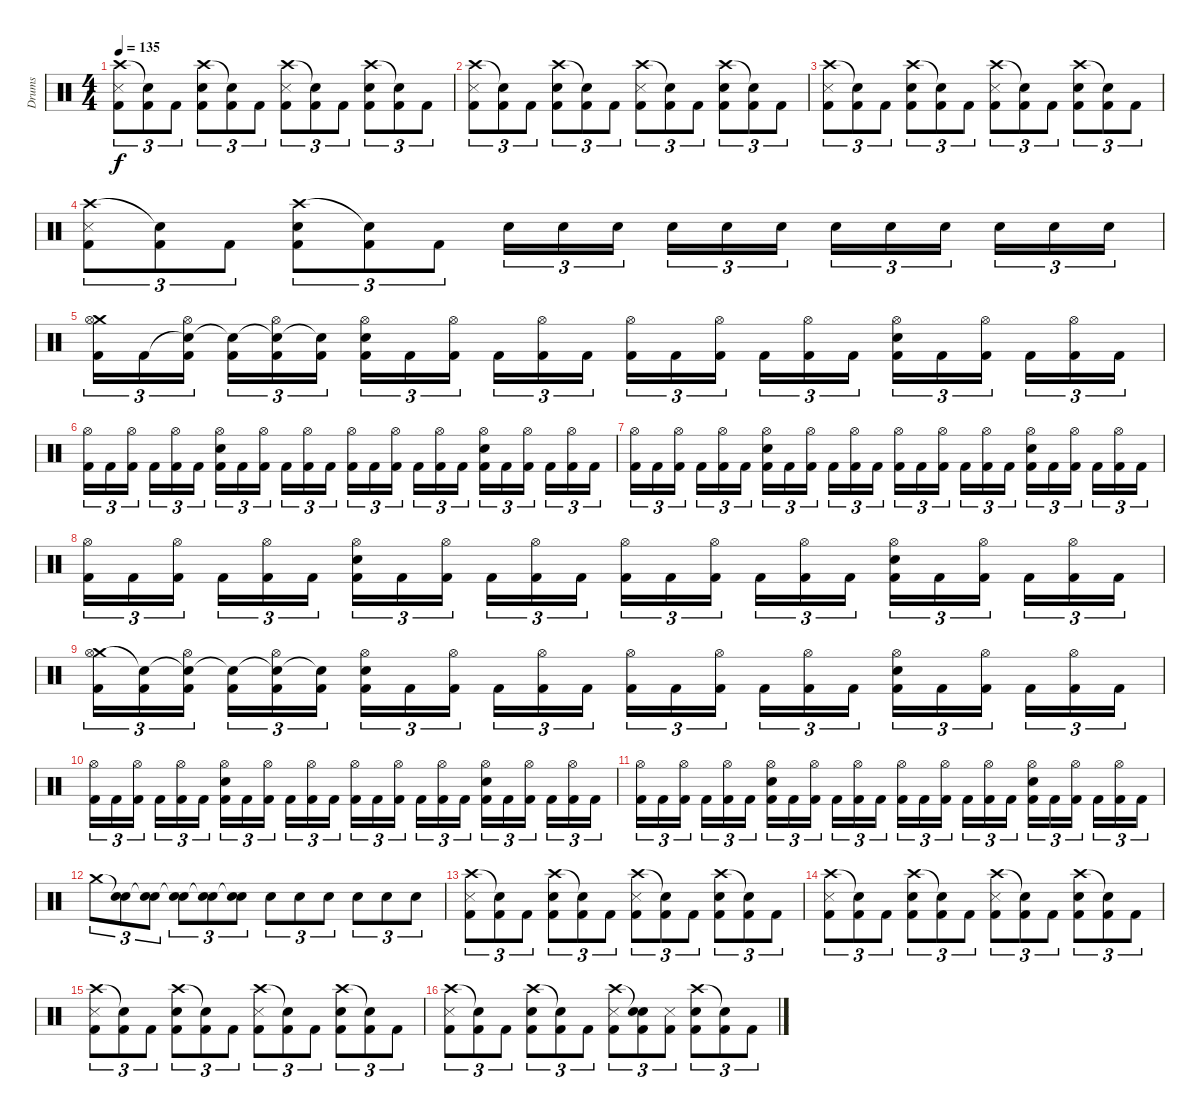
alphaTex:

\track ("Drums" "Drums") {instrument percussion}
\staff {score}
\articulation defaults
\ts (4 4)
\tempo 135
\clef neutral
\ks c
("Crash high (hit)" "Snare (side stick) 3" "Kick (hit) 2").8{tu (3 2) dy f} ("Snare (hit)"{t} "Kick (hit) 2").8{tu (3 2)} "Kick (hit) 2".8{tu (3 2)} ("Crash high (hit)" "Electric Snare (hit)" "Kick (hit) 2").8{tu (3 2)} ("Snare (hit)"{t} "Kick (hit) 2").8{tu (3 2)} "Kick (hit) 2".8{tu (3 2)} ("Crash high (hit)" "Snare (side stick) 3" "Kick (hit) 2").8{tu (3 2)} ("Snare (hit)"{t} "Kick (hit) 2").8{tu (3 2)} "Kick (hit) 2".8{tu (3 2)} ("Crash high (hit)" "Electric Snare (hit)" "Kick (hit) 2").8{tu (3 2)} ("Snare (hit)"{t} "Kick (hit) 2").8{tu (3 2)} "Kick (hit) 2".8{tu (3 2)} |
("Crash high (hit)" "Snare (side stick) 3" "Kick (hit) 2").8{tu (3 2)} ("Snare (hit)"{t} "Kick (hit) 2").8{tu (3 2)} "Kick (hit) 2".8{tu (3 2)} ("Crash high (hit)" "Electric Snare (hit)" "Kick (hit) 2").8{tu (3 2)} ("Snare (hit)"{t} "Kick (hit) 2").8{tu (3 2)} "Kick (hit) 2".8{tu (3 2)} ("Crash high (hit)" "Snare (side stick) 3" "Kick (hit) 2").8{tu (3 2)} ("Snare (hit)"{t} "Kick (hit) 2").8{tu (3 2)} "Kick (hit) 2".8{tu (3 2)} ("Crash high (hit)" "Electric Snare (hit)" "Kick (hit) 2").8{tu (3 2)} ("Snare (hit)"{t} "Kick (hit) 2").8{tu (3 2)} "Kick (hit) 2".8{tu (3 2)} |
("Crash high (hit)" "Snare (side stick) 3" "Kick (hit) 2").8{tu (3 2)} ("Snare (hit)"{t} "Kick (hit) 2").8{tu (3 2)} "Kick (hit) 2".8{tu (3 2)} ("Crash high (hit)" "Electric Snare (hit)" "Kick (hit) 2").8{tu (3 2)} ("Snare (hit)"{t} "Kick (hit) 2").8{tu (3 2)} "Kick (hit) 2".8{tu (3 2)} ("Crash high (hit)" "Snare (side stick) 3" "Kick (hit) 2").8{tu (3 2)} ("Snare (hit)"{t} "Kick (hit) 2").8{tu (3 2)} "Kick (hit) 2".8{tu (3 2)} ("Crash high (hit)" "Electric Snare (hit)" "Kick (hit) 2").8{tu (3 2)} ("Snare (hit)"{t} "Kick (hit) 2").8{tu (3 2)} "Kick (hit) 2".8{tu (3 2)} |
("Crash high (hit)" "Snare (side stick) 3" "Kick (hit) 2").8{tu (3 2)} ("Snare (hit)"{t} "Kick (hit) 2").8{tu (3 2)} "Kick (hit) 2".8{tu (3 2)} ("Crash high (hit)" "Electric Snare (hit)" "Kick (hit) 2").8{tu (3 2)} ("Snare (hit)"{t} "Kick (hit) 2").8{tu (3 2)} "Kick (hit) 2".8{tu (3 2)} "Electric Snare (hit)".16{tu (3 2)} "Electric Snare (hit)".16{tu (3 2)} "Electric Snare (hit)".16{tu (3 2)} "Electric Snare (hit)".16{tu (3 2)} "Electric Snare (hit)".16{tu (3 2)} "Electric Snare (hit)".16{tu (3 2)} "Electric Snare (hit)".16{tu (3 2)} "Electric Snare (hit)".16{tu (3 2)} "Electric Snare (hit)".16{tu (3 2)} "Electric Snare (hit)".16{tu (3 2)} "Electric Snare (hit)".16{tu (3 2)} "Electric Snare (hit)".16{tu (3 2)} |
("Crash medium (hit)" "Hi-Hat (open)" "Kick (hit) 2").16{tu (3 2)} "Kick (hit) 2".16{tu (3 2)} ("Snare (hit)"{t} "Hi-Hat (open)" "Kick (hit) 2").16{tu (3 2)} ("Snare (hit)"{t} "Kick (hit) 2").16{tu (3 2)} ("Snare (hit)"{t} "Hi-Hat (open)" "Kick (hit) 2").16{tu (3 2)} ("Snare (hit)"{t} "Kick (hit) 2").16{tu (3 2)} ("Hi-Hat (open)" "Electric Snare (hit)" "Kick (hit) 2").16{tu (3 2)} "Kick (hit) 2".16{tu (3 2)} ("Hi-Hat (open)" "Kick (hit) 2").16{tu (3 2)} "Kick (hit) 2".16{tu (3 2)} ("Hi-Hat (open)" "Kick (hit) 2").16{tu (3 2)} "Kick (hit) 2".16{tu (3 2)} ("Hi-Hat (open)" "Kick (hit) 2").16{tu (3 2)} "Kick (hit) 2".16{tu (3 2)} ("Hi-Hat (open)" "Kick (hit) 2").16{tu (3 2)} "Kick (hit) 2".16{tu (3 2)} ("Hi-Hat (open)" "Kick (hit) 2").16{tu (3 2)} "Kick (hit) 2".16{tu (3 2)} ("Hi-Hat (open)" "Electric Snare (hit)" "Kick (hit) 2").16{tu (3 2)} "Kick (hit) 2".16{tu (3 2)} ("Hi-Hat (open)" "Kick (hit) 2").16{tu (3 2)} "Kick (hit) 2".16{tu (3 2)} ("Hi-Hat (open)" "Kick (hit) 2").16{tu (3 2)} "Kick (hit) 2".16{tu (3 2)} |
("Hi-Hat (open)" "Kick (hit) 2").16{tu (3 2)} "Kick (hit) 2".16{tu (3 2)} ("Hi-Hat (open)" "Kick (hit) 2").16{tu (3 2)} "Kick (hit) 2".16{tu (3 2)} ("Hi-Hat (open)" "Kick (hit) 2").16{tu (3 2)} "Kick (hit) 2".16{tu (3 2)} ("Hi-Hat (open)" "Electric Snare (hit)" "Kick (hit) 2").16{tu (3 2)} "Kick (hit) 2".16{tu (3 2)} ("Hi-Hat (open)" "Kick (hit) 2").16{tu (3 2)} "Kick (hit) 2".16{tu (3 2)} ("Hi-Hat (open)" "Kick (hit) 2").16{tu (3 2)} "Kick (hit) 2".16{tu (3 2)} ("Hi-Hat (open)" "Kick (hit) 2").16{tu (3 2)} "Kick (hit) 2".16{tu (3 2)} ("Hi-Hat (open)" "Kick (hit) 2").16{tu (3 2)} "Kick (hit) 2".16{tu (3 2)} ("Hi-Hat (open)" "Kick (hit) 2").16{tu (3 2)} "Kick (hit) 2".16{tu (3 2)} ("Hi-Hat (open)" "Electric Snare (hit)" "Kick (hit) 2").16{tu (3 2)} "Kick (hit) 2".16{tu (3 2)} ("Hi-Hat (open)" "Kick (hit) 2").16{tu (3 2)} "Kick (hit) 2".16{tu (3 2)} ("Hi-Hat (open)" "Kick (hit) 2").16{tu (3 2)} "Kick (hit) 2".16{tu (3 2)} |
("Hi-Hat (open)" "Kick (hit) 2").16{tu (3 2)} "Kick (hit) 2".16{tu (3 2)} ("Hi-Hat (open)" "Kick (hit) 2").16{tu (3 2)} "Kick (hit) 2".16{tu (3 2)} ("Hi-Hat (open)" "Kick (hit) 2").16{tu (3 2)} "Kick (hit) 2".16{tu (3 2)} ("Hi-Hat (open)" "Electric Snare (hit)" "Kick (hit) 2").16{tu (3 2)} "Kick (hit) 2".16{tu (3 2)} ("Hi-Hat (open)" "Kick (hit) 2").16{tu (3 2)} "Kick (hit) 2".16{tu (3 2)} ("Hi-Hat (open)" "Kick (hit) 2").16{tu (3 2)} "Kick (hit) 2".16{tu (3 2)} ("Hi-Hat (open)" "Kick (hit) 2").16{tu (3 2)} "Kick (hit) 2".16{tu (3 2)} ("Hi-Hat (open)" "Kick (hit) 2").16{tu (3 2)} "Kick (hit) 2".16{tu (3 2)} ("Hi-Hat (open)" "Kick (hit) 2").16{tu (3 2)} "Kick (hit) 2".16{tu (3 2)} ("Hi-Hat (open)" "Electric Snare (hit)" "Kick (hit) 2").16{tu (3 2)} "Kick (hit) 2".16{tu (3 2)} ("Hi-Hat (open)" "Kick (hit) 2").16{tu (3 2)} "Kick (hit) 2".16{tu (3 2)} ("Hi-Hat (open)" "Kick (hit) 2").16{tu (3 2)} "Kick (hit) 2".16{tu (3 2)} |
("Hi-Hat (open)" "Kick (hit) 2").16{tu (3 2)} "Kick (hit) 2".16{tu (3 2)} ("Hi-Hat (open)" "Kick (hit) 2").16{tu (3 2)} "Kick (hit) 2".16{tu (3 2)} ("Hi-Hat (open)" "Kick (hit) 2").16{tu (3 2)} "Kick (hit) 2".16{tu (3 2)} ("Hi-Hat (open)" "Electric Snare (hit)" "Kick (hit) 2").16{tu (3 2)} "Kick (hit) 2".16{tu (3 2)} ("Hi-Hat (open)" "Kick (hit) 2").16{tu (3 2)} "Kick (hit) 2".16{tu (3 2)} ("Hi-Hat (open)" "Kick (hit) 2").16{tu (3 2)} "Kick (hit) 2".16{tu (3 2)} ("Hi-Hat (open)" "Kick (hit) 2").16{tu (3 2)} "Kick (hit) 2".16{tu (3 2)} ("Hi-Hat (open)" "Kick (hit) 2").16{tu (3 2)} "Kick (hit) 2".16{tu (3 2)} ("Hi-Hat (open)" "Kick (hit) 2").16{tu (3 2)} "Kick (hit) 2".16{tu (3 2)} ("Hi-Hat (open)" "Electric Snare (hit)" "Kick (hit) 2").16{tu (3 2)} "Kick (hit) 2".16{tu (3 2)} ("Hi-Hat (open)" "Kick (hit) 2").16{tu (3 2)} "Kick (hit) 2".16{tu (3 2)} ("Hi-Hat (open)" "Kick (hit) 2").16{tu (3 2)} "Kick (hit) 2".16{tu (3 2)} |
("Crash medium (hit)" "Hi-Hat (open)" "Kick (hit) 2").16{tu (3 2)} ("Snare (hit)"{t} "Kick (hit) 2").16{tu (3 2)} ("Snare (hit)"{t} "Hi-Hat (open)" "Kick (hit) 2").16{tu (3 2)} ("Snare (hit)"{t} "Kick (hit) 2").16{tu (3 2)} ("Snare (hit)"{t} "Hi-Hat (open)" "Kick (hit) 2").16{tu (3 2)} ("Snare (hit)"{t} "Kick (hit) 2").16{tu (3 2)} ("Hi-Hat (open)" "Electric Snare (hit)" "Kick (hit) 2").16{tu (3 2)} "Kick (hit) 2".16{tu (3 2)} ("Hi-Hat (open)" "Kick (hit) 2").16{tu (3 2)} "Kick (hit) 2".16{tu (3 2)} ("Hi-Hat (open)" "Kick (hit) 2").16{tu (3 2)} "Kick (hit) 2".16{tu (3 2)} ("Hi-Hat (open)" "Kick (hit) 2").16{tu (3 2)} "Kick (hit) 2".16{tu (3 2)} ("Hi-Hat (open)" "Kick (hit) 2").16{tu (3 2)} "Kick (hit) 2".16{tu (3 2)} ("Hi-Hat (open)" "Kick (hit) 2").16{tu (3 2)} "Kick (hit) 2".16{tu (3 2)} ("Hi-Hat (open)" "Electric Snare (hit)" "Kick (hit) 2").16{tu (3 2)} "Kick (hit) 2".16{tu (3 2)} ("Hi-Hat (open)" "Kick (hit) 2").16{tu (3 2)} "Kick (hit) 2".16{tu (3 2)} ("Hi-Hat (open)" "Kick (hit) 2").16{tu (3 2)} "Kick (hit) 2".16{tu (3 2)} |
("Hi-Hat (open)" "Kick (hit) 2").16{tu (3 2)} "Kick (hit) 2".16{tu (3 2)} ("Hi-Hat (open)" "Kick (hit) 2").16{tu (3 2)} "Kick (hit) 2".16{tu (3 2)} ("Hi-Hat (open)" "Kick (hit) 2").16{tu (3 2)} "Kick (hit) 2".16{tu (3 2)} ("Hi-Hat (open)" "Electric Snare (hit)" "Kick (hit) 2").16{tu (3 2)} "Kick (hit) 2".16{tu (3 2)} ("Hi-Hat (open)" "Kick (hit) 2").16{tu (3 2)} "Kick (hit) 2".16{tu (3 2)} ("Hi-Hat (open)" "Kick (hit) 2").16{tu (3 2)} "Kick (hit) 2".16{tu (3 2)} ("Hi-Hat (open)" "Kick (hit) 2").16{tu (3 2)} "Kick (hit) 2".16{tu (3 2)} ("Hi-Hat (open)" "Kick (hit) 2").16{tu (3 2)} "Kick (hit) 2".16{tu (3 2)} ("Hi-Hat (open)" "Kick (hit) 2").16{tu (3 2)} "Kick (hit) 2".16{tu (3 2)} ("Hi-Hat (open)" "Electric Snare (hit)" "Kick (hit) 2").16{tu (3 2)} "Kick (hit) 2".16{tu (3 2)} ("Hi-Hat (open)" "Kick (hit) 2").16{tu (3 2)} "Kick (hit) 2".16{tu (3 2)} ("Hi-Hat (open)" "Kick (hit) 2").16{tu (3 2)} "Kick (hit) 2".16{tu (3 2)} |
("Hi-Hat (open)" "Kick (hit) 2").16{tu (3 2)} "Kick (hit) 2".16{tu (3 2)} ("Hi-Hat (open)" "Kick (hit) 2").16{tu (3 2)} "Kick (hit) 2".16{tu (3 2)} ("Hi-Hat (open)" "Kick (hit) 2").16{tu (3 2)} "Kick (hit) 2".16{tu (3 2)} ("Hi-Hat (open)" "Electric Snare (hit)" "Kick (hit) 2").16{tu (3 2)} "Kick (hit) 2".16{tu (3 2)} ("Hi-Hat (open)" "Kick (hit) 2").16{tu (3 2)} "Kick (hit) 2".16{tu (3 2)} ("Hi-Hat (open)" "Kick (hit) 2").16{tu (3 2)} "Kick (hit) 2".16{tu (3 2)} ("Hi-Hat (open)" "Kick (hit) 2").16{tu (3 2)} "Kick (hit) 2".16{tu (3 2)} ("Hi-Hat (open)" "Kick (hit) 2").16{tu (3 2)} "Kick (hit) 2".16{tu (3 2)} ("Hi-Hat (open)" "Kick (hit) 2").16{tu (3 2)} "Kick (hit) 2".16{tu (3 2)} ("Hi-Hat (open)" "Electric Snare (hit)" "Kick (hit) 2").16{tu (3 2)} "Kick (hit) 2".16{tu (3 2)} ("Hi-Hat (open)" "Kick (hit) 2").16{tu (3 2)} "Kick (hit) 2".16{tu (3 2)} ("Hi-Hat (open)" "Kick (hit) 2").16{tu (3 2)} "Kick (hit) 2".16{tu (3 2)} |
"Crash medium (hit)".8{tu (3 2)} ("Snare (hit)"{t} "Electric Snare (hit)").8{tu (3 2)} ("Snare (hit)"{t} "Electric Snare (hit)").8{tu (3 2)} ("Snare (hit)"{t} "Electric Snare (hit)").8{tu (3 2)} ("Snare (hit)"{t} "Electric Snare (hit)").8{tu (3 2)} ("Snare (hit)"{t} "Electric Snare (hit)").8{tu (3 2)} "Electric Snare (hit)".8{tu (3 2)} "Electric Snare (hit)".8{tu (3 2)} "Electric Snare (hit)".8{tu (3 2)} "Electric Snare (hit)".8{tu (3 2)} "Electric Snare (hit)".8{tu (3 2)} "Electric Snare (hit)".8{tu (3 2)} |
("Crash high (hit)" "Snare (side stick) 3" "Kick (hit) 2").8{tu (3 2)} ("Snare (hit)"{t} "Kick (hit) 2").8{tu (3 2)} "Kick (hit) 2".8{tu (3 2)} ("Crash high (hit)" "Electric Snare (hit)" "Kick (hit) 2").8{tu (3 2)} ("Snare (hit)"{t} "Kick (hit) 2").8{tu (3 2)} "Kick (hit) 2".8{tu (3 2)} ("Crash high (hit)" "Snare (side stick) 3" "Kick (hit) 2").8{tu (3 2)} ("Snare (hit)"{t} "Kick (hit) 2").8{tu (3 2)} "Kick (hit) 2".8{tu (3 2)} ("Crash high (hit)" "Electric Snare (hit)" "Kick (hit) 2").8{tu (3 2)} ("Snare (hit)"{t} "Kick (hit) 2").8{tu (3 2)} "Kick (hit) 2".8{tu (3 2)} |
("Crash high (hit)" "Snare (side stick) 3" "Kick (hit) 2").8{tu (3 2)} ("Snare (hit)"{t} "Kick (hit) 2").8{tu (3 2)} "Kick (hit) 2".8{tu (3 2)} ("Crash high (hit)" "Electric Snare (hit)" "Kick (hit) 2").8{tu (3 2)} ("Snare (hit)"{t} "Kick (hit) 2").8{tu (3 2)} "Kick (hit) 2".8{tu (3 2)} ("Crash high (hit)" "Snare (side stick) 3" "Kick (hit) 2").8{tu (3 2)} ("Snare (hit)"{t} "Kick (hit) 2").8{tu (3 2)} "Kick (hit) 2".8{tu (3 2)} ("Crash high (hit)" "Electric Snare (hit)" "Kick (hit) 2").8{tu (3 2)} ("Snare (hit)"{t} "Kick (hit) 2").8{tu (3 2)} "Kick (hit) 2".8{tu (3 2)} |
("Crash high (hit)" "Snare (side stick) 3" "Kick (hit) 2").8{tu (3 2)} ("Snare (hit)"{t} "Kick (hit) 2").8{tu (3 2)} "Kick (hit) 2".8{tu (3 2)} ("Crash high (hit)" "Electric Snare (hit)" "Kick (hit) 2").8{tu (3 2)} ("Snare (hit)"{t} "Kick (hit) 2").8{tu (3 2)} "Kick (hit) 2".8{tu (3 2)} ("Crash high (hit)" "Snare (side stick) 3" "Kick (hit) 2").8{tu (3 2)} ("Snare (hit)"{t} "Kick (hit) 2").8{tu (3 2)} "Kick (hit) 2".8{tu (3 2)} ("Crash high (hit)" "Electric Snare (hit)" "Kick (hit) 2").8{tu (3 2)} ("Snare (hit)"{t} "Kick (hit) 2").8{tu (3 2)} "Kick (hit) 2".8{tu (3 2)} |
("Crash high (hit)" "Snare (side stick) 3" "Kick (hit) 2").8{tu (3 2)} ("Snare (hit)"{t} "Kick (hit) 2").8{tu (3 2)} "Kick (hit) 2".8{tu (3 2)} ("Crash high (hit)" "Electric Snare (hit)" "Kick (hit) 2").8{tu (3 2)} ("Snare (hit)"{t} "Kick (hit) 2").8{tu (3 2)} "Kick (hit) 2".8{tu (3 2)} ("Crash high (hit)" "Snare (side stick) 3" "Kick (hit) 2").8{tu (3 2)} ("Snare (hit)"{t} "Electric Snare (hit)" "Kick (hit) 2").8{tu (3 2)} ("Snare (side stick) 3" "Kick (hit) 2").8{tu (3 2)} ("Crash high (hit)" "Electric Snare (hit)" "Kick (hit) 2").8{tu (3 2)} ("Snare (hit)"{t} "Kick (hit) 2").8{tu (3 2)} "Kick (hit) 2".8{tu (3 2)}
